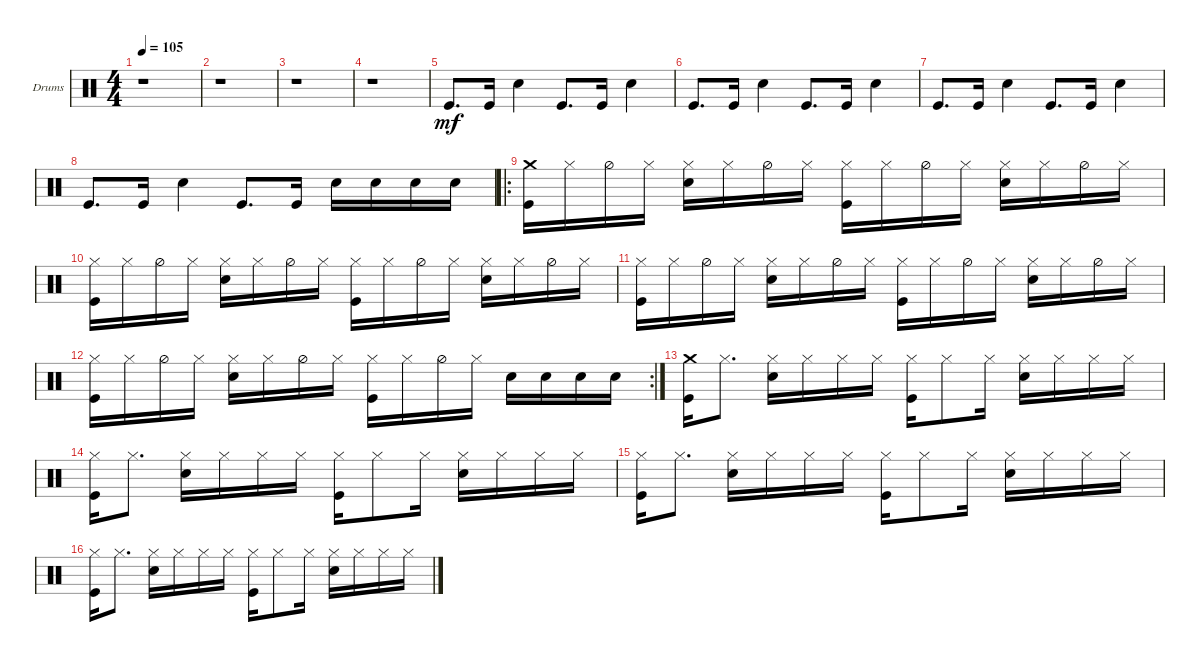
\defaultSystemsLayout 4
\bracketExtendMode groupsimilarinstruments
\firstSystemTrackNameOrientation horizontal
\otherSystemsTrackNameOrientation horizontal
\track ("Drumkit" "Drums") {instrument percussion}
\staff {score}
\articulation defaults
\ts (4 4)
\tempo 105
\clef neutral
\ks c
r.1{dy mf} |
r.1 |
r.1 |
r.1 |
"Kick (hit)".8{d} "Kick (hit)".16 "Snare (hit) 2".4 "Kick (hit)".8{d} "Kick (hit)".16 "Snare (hit) 2".4 |
"Kick (hit)".8{d} "Kick (hit)".16 "Snare (hit) 2".4 "Kick (hit)".8{d} "Kick (hit)".16 "Snare (hit) 2".4 |
"Kick (hit)".8{d} "Kick (hit)".16 "Snare (hit) 2".4 "Kick (hit)".8{d} "Kick (hit)".16 "Snare (hit) 2".4 |
"Kick (hit)".8{d} "Kick (hit)".16 "Snare (hit) 2".4 "Kick (hit)".8{d} "Kick (hit)".16 "Snare (hit) 2".16 "Snare (hit) 2".16 "Snare (hit) 2".16 "Snare (hit) 2".16 |
\ro
("Kick (hit)" "Crash medium (hit)").16 "Hi-Hat (closed)".16 "Hi-Hat (half)".16 "Hi-Hat (closed)".16 ("Hi-Hat (closed)" "Snare (hit) 2").16 "Hi-Hat (closed)".16 "Hi-Hat (half)".16 "Hi-Hat (closed)".16 ("Hi-Hat (closed)" "Kick (hit)").16 "Hi-Hat (closed)".16 "Hi-Hat (half)".16 "Hi-Hat (closed)".16 ("Hi-Hat (closed)" "Snare (hit) 2").16 "Hi-Hat (closed)".16 "Hi-Hat (half)".16 "Hi-Hat (closed)".16 |
("Hi-Hat (closed)" "Kick (hit)").16 "Hi-Hat (closed)".16 "Hi-Hat (half)".16 "Hi-Hat (closed)".16 ("Hi-Hat (closed)" "Snare (hit) 2").16 "Hi-Hat (closed)".16 "Hi-Hat (half)".16 "Hi-Hat (closed)".16 ("Hi-Hat (closed)" "Kick (hit)").16 "Hi-Hat (closed)".16 "Hi-Hat (half)".16 "Hi-Hat (closed)".16 ("Hi-Hat (closed)" "Snare (hit) 2").16 "Hi-Hat (closed)".16 "Hi-Hat (half)".16 "Hi-Hat (closed)".16 |
("Hi-Hat (closed)" "Kick (hit)").16 "Hi-Hat (closed)".16 "Hi-Hat (half)".16 "Hi-Hat (closed)".16 ("Hi-Hat (closed)" "Snare (hit) 2").16 "Hi-Hat (closed)".16 "Hi-Hat (half)".16 "Hi-Hat (closed)".16 ("Hi-Hat (closed)" "Kick (hit)").16 "Hi-Hat (closed)".16 "Hi-Hat (half)".16 "Hi-Hat (closed)".16 ("Hi-Hat (closed)" "Snare (hit) 2").16 "Hi-Hat (closed)".16 "Hi-Hat (half)".16 "Hi-Hat (closed)".16 |
\rc 2
("Hi-Hat (closed)" "Kick (hit)").16 "Hi-Hat (closed)".16 "Hi-Hat (half)".16 "Hi-Hat (closed)".16 ("Hi-Hat (closed)" "Snare (hit) 2").16 "Hi-Hat (closed)".16 "Hi-Hat (half)".16 "Hi-Hat (closed)".16 ("Hi-Hat (closed)" "Kick (hit)").16 "Hi-Hat (closed)".16 "Hi-Hat (half)".16 "Hi-Hat (closed)".16 "Snare (hit) 2".16 "Snare (hit) 2".16 "Snare (hit) 2".16 "Snare (hit) 2".16 |
("Kick (hit)" "Crash medium (hit)").16 "Hi-Hat (closed)".8{d} ("Snare (hit) 2" "Hi-Hat (closed)").16 "Hi-Hat (closed)".16 "Hi-Hat (closed)".16 "Hi-Hat (closed)".16 ("Kick (hit)" "Hi-Hat (closed)").16 "Hi-Hat (closed)".8 "Hi-Hat (closed)".16 ("Snare (hit) 2" "Hi-Hat (closed)").16 "Hi-Hat (closed)".16 "Hi-Hat (closed)".16 "Hi-Hat (closed)".16 |
("Kick (hit)" "Hi-Hat (closed)").16 "Hi-Hat (closed)".8{d} ("Snare (hit) 2" "Hi-Hat (closed)").16 "Hi-Hat (closed)".16 "Hi-Hat (closed)".16 "Hi-Hat (closed)".16 ("Kick (hit)" "Hi-Hat (closed)").16 "Hi-Hat (closed)".8 "Hi-Hat (closed)".16 ("Snare (hit) 2" "Hi-Hat (closed)").16 "Hi-Hat (closed)".16 "Hi-Hat (closed)".16 "Hi-Hat (closed)".16 |
("Kick (hit)" "Hi-Hat (closed)").16 "Hi-Hat (closed)".8{d} ("Snare (hit) 2" "Hi-Hat (closed)").16 "Hi-Hat (closed)".16 "Hi-Hat (closed)".16 "Hi-Hat (closed)".16 ("Kick (hit)" "Hi-Hat (closed)").16 "Hi-Hat (closed)".8 "Hi-Hat (closed)".16 ("Snare (hit) 2" "Hi-Hat (closed)").16 "Hi-Hat (closed)".16 "Hi-Hat (closed)".16 "Hi-Hat (closed)".16 |
("Kick (hit)" "Hi-Hat (closed)").16 "Hi-Hat (closed)".8{d} ("Snare (hit) 2" "Hi-Hat (closed)").16 "Hi-Hat (closed)".16 "Hi-Hat (closed)".16 "Hi-Hat (closed)".16 ("Kick (hit)" "Hi-Hat (closed)").16 "Hi-Hat (closed)".8 "Hi-Hat (closed)".16 ("Snare (hit) 2" "Hi-Hat (closed)").16 "Hi-Hat (closed)".16 "Hi-Hat (closed)".16 "Hi-Hat (closed)".16
